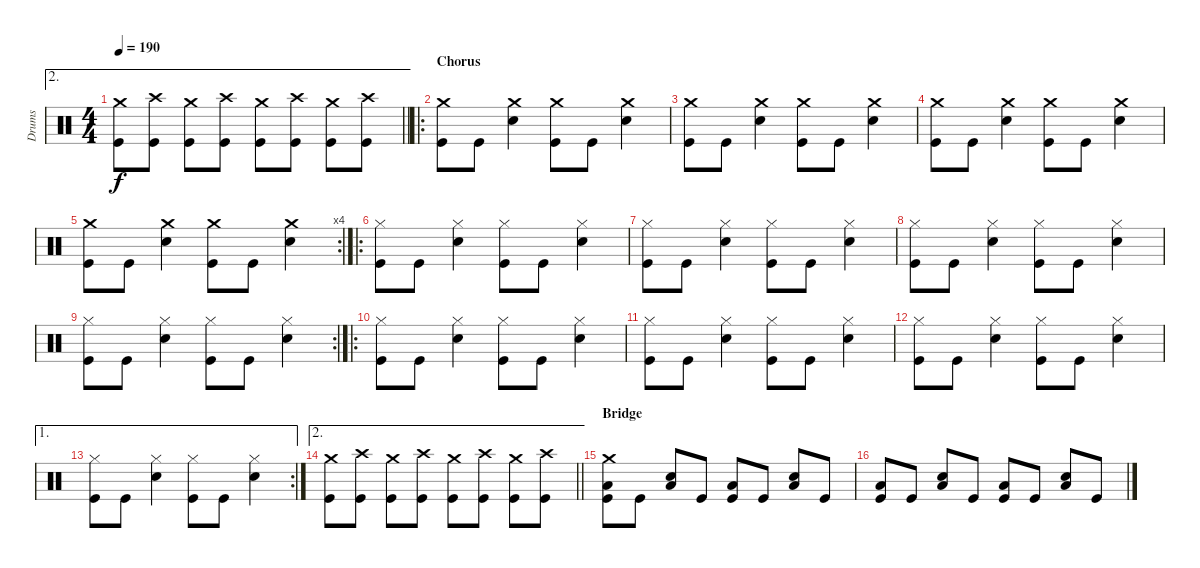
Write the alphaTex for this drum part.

\track ("Drums" "Drums") {instrument percussion}
\staff {score}
\articulation defaults
\ae 2
\ts (4 4)
\tempo 190
\clef neutral
\barLineRight lightlight
\ks c
("Crash medium (hit)" "Kick (hit)").8{dy f} ("Crash high (hit)" "Kick (hit)").8 ("Crash medium (hit)" "Kick (hit)").8 ("Crash high (hit)" "Kick (hit)").8 ("Crash medium (hit)" "Kick (hit)").8 ("Crash high (hit)" "Kick (hit)").8 ("Crash medium (hit)" "Kick (hit)").8 ("Crash high (hit)" "Kick (hit)").8 |
\ro
\section ("" "Chorus")
("Crash medium (hit)" "Kick (hit)").8 "Kick (hit)".8 ("Crash medium (hit)" "Snare (hit) 2").4 ("Crash medium (hit)" "Kick (hit)").8 "Kick (hit)".8 ("Crash medium (hit)" "Snare (hit) 2").4 |
("Crash medium (hit)" "Kick (hit)").8 "Kick (hit)".8 ("Crash medium (hit)" "Snare (hit) 2").4 ("Crash medium (hit)" "Kick (hit)").8 "Kick (hit)".8 ("Crash medium (hit)" "Snare (hit) 2").4 |
("Crash medium (hit)" "Kick (hit)").8 "Kick (hit)".8 ("Crash medium (hit)" "Snare (hit) 2").4 ("Crash medium (hit)" "Kick (hit)").8 "Kick (hit)".8 ("Crash medium (hit)" "Snare (hit) 2").4 |
\rc 4
("Crash medium (hit)" "Kick (hit)").8 "Kick (hit)".8 ("Crash medium (hit)" "Snare (hit) 2").4 ("Crash medium (hit)" "Kick (hit)").8 "Kick (hit)".8 ("Crash medium (hit)" "Snare (hit) 2").4 |
\ro
("Hi-Hat (closed)" "Kick (hit)").8 "Kick (hit)".8 ("Hi-Hat (closed)" "Snare (hit) 2").4 ("Hi-Hat (closed)" "Kick (hit)").8 "Kick (hit)".8 ("Hi-Hat (closed)" "Snare (hit) 2").4 |
("Hi-Hat (closed)" "Kick (hit)").8 "Kick (hit)".8 ("Hi-Hat (closed)" "Snare (hit) 2").4 ("Hi-Hat (closed)" "Kick (hit)").8 "Kick (hit)".8 ("Hi-Hat (closed)" "Snare (hit) 2").4 |
("Hi-Hat (closed)" "Kick (hit)").8 "Kick (hit)".8 ("Hi-Hat (closed)" "Snare (hit) 2").4 ("Hi-Hat (closed)" "Kick (hit)").8 "Kick (hit)".8 ("Hi-Hat (closed)" "Snare (hit) 2").4 |
\rc 2
("Hi-Hat (closed)" "Kick (hit)").8 "Kick (hit)".8 ("Hi-Hat (closed)" "Snare (hit) 2").4 ("Hi-Hat (closed)" "Kick (hit)").8 "Kick (hit)".8 ("Hi-Hat (closed)" "Snare (hit) 2").4 |
\ro
("Hi-Hat (closed)" "Kick (hit)").8 "Kick (hit)".8 ("Hi-Hat (closed)" "Snare (hit) 2").4 ("Hi-Hat (closed)" "Kick (hit)").8 "Kick (hit)".8 ("Hi-Hat (closed)" "Snare (hit) 2").4 |
("Hi-Hat (closed)" "Kick (hit)").8 "Kick (hit)".8 ("Hi-Hat (closed)" "Snare (hit) 2").4 ("Hi-Hat (closed)" "Kick (hit)").8 "Kick (hit)".8 ("Hi-Hat (closed)" "Snare (hit) 2").4 |
("Hi-Hat (closed)" "Kick (hit)").8 "Kick (hit)".8 ("Hi-Hat (closed)" "Snare (hit) 2").4 ("Hi-Hat (closed)" "Kick (hit)").8 "Kick (hit)".8 ("Hi-Hat (closed)" "Snare (hit) 2").4 |
\ae 1
\rc 2
("Hi-Hat (closed)" "Kick (hit)").8 "Kick (hit)".8 ("Hi-Hat (closed)" "Snare (hit) 2").4 ("Hi-Hat (closed)" "Kick (hit)").8 "Kick (hit)".8 ("Hi-Hat (closed)" "Snare (hit) 2").4 |
\ae 2
\barLineRight lightlight
("Crash medium (hit)" "Kick (hit)").8 ("Crash high (hit)" "Kick (hit)").8 ("Crash medium (hit)" "Kick (hit)").8 ("Crash high (hit)" "Kick (hit)").8 ("Crash medium (hit)" "Kick (hit)").8 ("Crash high (hit)" "Kick (hit)").8 ("Crash medium (hit)" "Kick (hit)").8 ("Crash high (hit)" "Kick (hit)").8 |
\section ("" "Bridge")
("Crash medium (hit)" "Low Floor Tom (hit)" "Kick (hit)").8 "Kick (hit)".8 ("Snare (hit) 2" "Low Floor Tom (hit)").8 "Kick (hit)".8 ("Low Floor Tom (hit)" "Kick (hit)").8 "Kick (hit)".8 ("Snare (hit) 2" "Low Floor Tom (hit)").8 "Kick (hit)".8 |
("Low Floor Tom (hit)" "Kick (hit)").8 "Kick (hit)".8 ("Snare (hit) 2" "Low Floor Tom (hit)").8 "Kick (hit)".8 ("Low Floor Tom (hit)" "Kick (hit)").8 "Kick (hit)".8 ("Snare (hit) 2" "Low Floor Tom (hit)").8 "Kick (hit)".8
